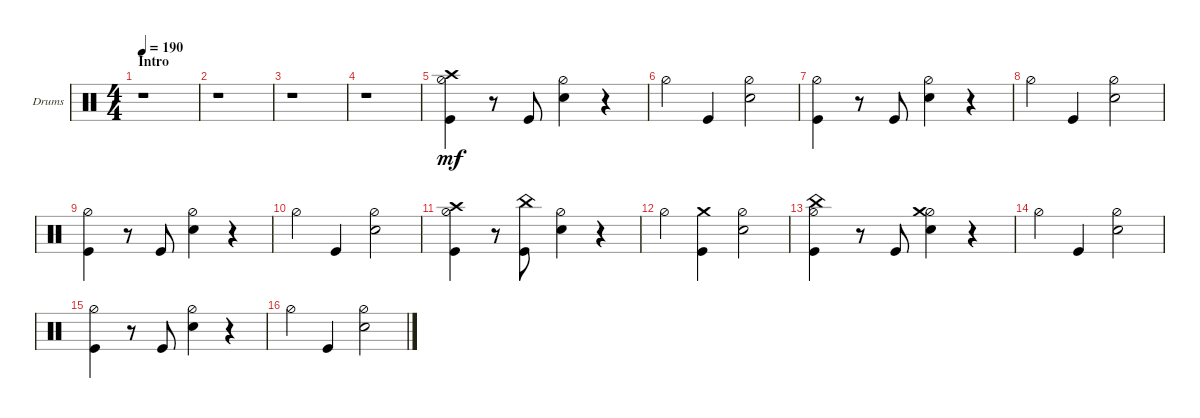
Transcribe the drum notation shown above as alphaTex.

\defaultSystemsLayout 4
\bracketExtendMode groupsimilarinstruments
\firstSystemTrackNameOrientation horizontal
\otherSystemsTrackNameOrientation horizontal
\track ("Drumkit" "Drums") {instrument percussion}
\staff {score}
\articulation defaults
\ts (4 4)
\section ("" "Intro")
\tempo 190
\clef neutral
\ks c
r.1{dy mf} |
r.1 |
r.1 |
r.1 |
("Hi-Hat (half)" "Kick (hit)" "Crash high (hit)").4 r.8 "Kick (hit)".8 ("Hi-Hat (half)" "Snare (hit) 2").4 r.4 |
"Hi-Hat (half)".4 "Kick (hit)".4 ("Snare (hit) 2" "Hi-Hat (half)").2 |
("Hi-Hat (half)" "Kick (hit)").4 r.8 "Kick (hit)".8 ("Hi-Hat (half)" "Snare (hit) 2").4 r.4 |
"Hi-Hat (half)".4 "Kick (hit)".4 ("Snare (hit) 2" "Hi-Hat (half)").2 |
("Hi-Hat (half)" "Kick (hit)").4 r.8 "Kick (hit)".8 ("Hi-Hat (half)" "Snare (hit) 2").4 r.4 |
"Hi-Hat (half)".4 "Kick (hit)".4 ("Snare (hit) 2" "Hi-Hat (half)").2 |
("Hi-Hat (half)" "Kick (hit)" "Crash high (hit)").4 r.8 ("Kick (hit)" "China (hit)").8 ("Hi-Hat (half)" "Snare (hit) 2").4 r.4 |
"Hi-Hat (half)".4 ("Kick (hit)" "Crash medium (hit)").4 ("Snare (hit) 2" "Hi-Hat (half)").2 |
("Hi-Hat (half)" "Kick (hit)" "China (hit)").4 r.8 "Kick (hit)".8 ("Hi-Hat (half)" "Snare (hit) 2" "Crash medium (hit)").4 r.4 |
"Hi-Hat (half)".4 "Kick (hit)".4 ("Snare (hit) 2" "Hi-Hat (half)").2 |
("Hi-Hat (half)" "Kick (hit)").4 r.8 "Kick (hit)".8 ("Hi-Hat (half)" "Snare (hit) 2").4 r.4 |
"Hi-Hat (half)".4 "Kick (hit)".4 ("Snare (hit) 2" "Hi-Hat (half)").2
